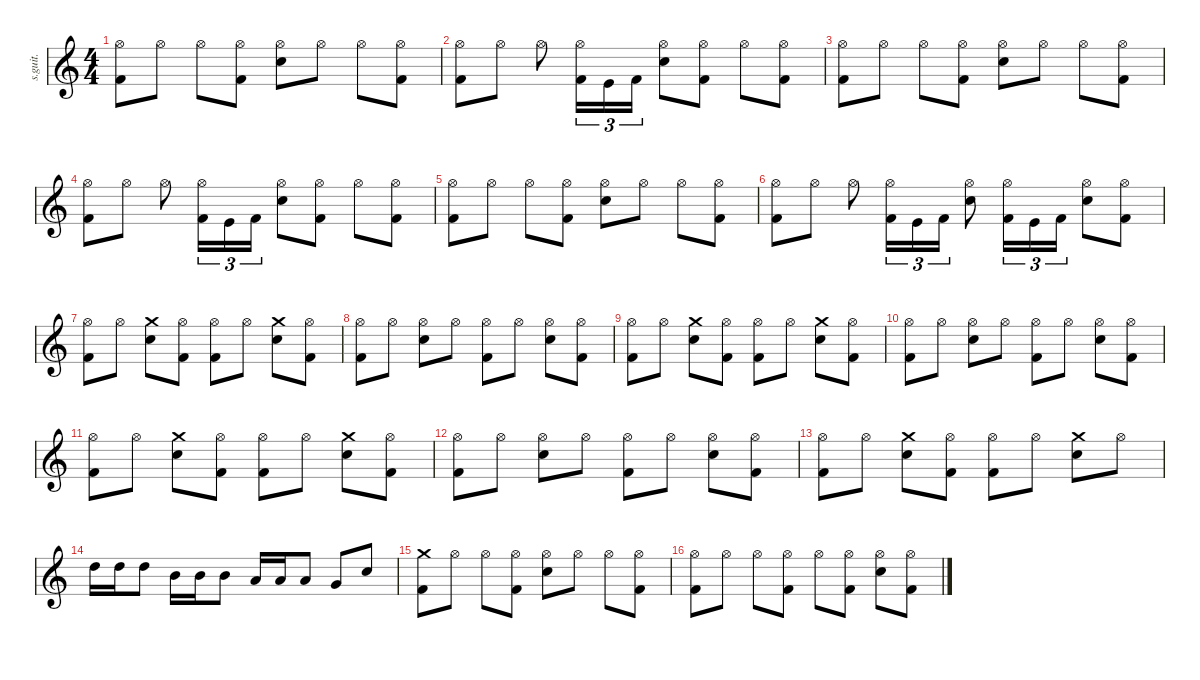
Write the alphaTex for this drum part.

\defaultSystemsLayout 4
\hideDynamics
\bracketExtendMode nobrackets
\track ("Lars Ulrich - Drums" "s.guit.") {instrument percussion}
\staff {score}
\articulation defaults
\ts (4 4)
\tempo (140 hide)
\clef g2
\ks c
("Hi-Hat (open)" "Kick (hit) 2").8{lyrics (0 "") lyrics (1 "") lyrics (2 "") lyrics (3 "") lyrics (4 "") dy f} "Hi-Hat (open)".8{lyrics (0 "") lyrics (1 "") lyrics (2 "") lyrics (3 "") lyrics (4 "")} "Hi-Hat (open)".8{lyrics (0 "") lyrics (1 "") lyrics (2 "") lyrics (3 "") lyrics (4 "")} ("Hi-Hat (open)" "Kick (hit) 2").8{lyrics (0 "") lyrics (1 "") lyrics (2 "") lyrics (3 "") lyrics (4 "")} ("Hi-Hat (open)" "Snare (hit) 2").8{lyrics (0 "") lyrics (1 "") lyrics (2 "") lyrics (3 "") lyrics (4 "")} "Hi-Hat (open)".8{lyrics (0 "") lyrics (1 "") lyrics (2 "") lyrics (3 "") lyrics (4 "")} "Hi-Hat (open)".8{lyrics (0 "") lyrics (1 "") lyrics (2 "") lyrics (3 "") lyrics (4 "")} ("Hi-Hat (open)" "Kick (hit) 2").8{lyrics (0 "") lyrics (1 "") lyrics (2 "") lyrics (3 "") lyrics (4 "")} |
("Hi-Hat (open)" "Kick (hit) 2").8{lyrics (0 "") lyrics (1 "") lyrics (2 "") lyrics (3 "") lyrics (4 "")} "Hi-Hat (open)".8{lyrics (0 "") lyrics (1 "") lyrics (2 "") lyrics (3 "") lyrics (4 "")} "Hi-Hat (open)".8{lyrics (0 "") lyrics (1 "") lyrics (2 "") lyrics (3 "") lyrics (4 "")} ("Hi-Hat (open)" "Kick (hit) 2").16{tu (3 2) lyrics (0 "") lyrics (1 "") lyrics (2 "") lyrics (3 "") lyrics (4 "")} "Kick (hit)".16{tu (3 2) lyrics (0 "") lyrics (1 "") lyrics (2 "") lyrics (3 "") lyrics (4 "")} "Kick (hit) 2".16{tu (3 2) lyrics (0 "") lyrics (1 "") lyrics (2 "") lyrics (3 "") lyrics (4 "")} ("Hi-Hat (open)" "Snare (hit) 2").8{lyrics (0 "") lyrics (1 "") lyrics (2 "") lyrics (3 "") lyrics (4 "")} ("Hi-Hat (open)" "Kick (hit) 2").8{lyrics (0 "") lyrics (1 "") lyrics (2 "") lyrics (3 "") lyrics (4 "")} "Hi-Hat (open)".8{lyrics (0 "") lyrics (1 "") lyrics (2 "") lyrics (3 "") lyrics (4 "")} ("Hi-Hat (open)" "Kick (hit) 2").8{lyrics (0 "") lyrics (1 "") lyrics (2 "") lyrics (3 "") lyrics (4 "")} |
("Hi-Hat (open)" "Kick (hit) 2").8{lyrics (0 "") lyrics (1 "") lyrics (2 "") lyrics (3 "") lyrics (4 "")} "Hi-Hat (open)".8{lyrics (0 "") lyrics (1 "") lyrics (2 "") lyrics (3 "") lyrics (4 "")} "Hi-Hat (open)".8{lyrics (0 "") lyrics (1 "") lyrics (2 "") lyrics (3 "") lyrics (4 "")} ("Hi-Hat (open)" "Kick (hit) 2").8{lyrics (0 "") lyrics (1 "") lyrics (2 "") lyrics (3 "") lyrics (4 "")} ("Hi-Hat (open)" "Snare (hit) 2").8{lyrics (0 "") lyrics (1 "") lyrics (2 "") lyrics (3 "") lyrics (4 "")} "Hi-Hat (open)".8{lyrics (0 "") lyrics (1 "") lyrics (2 "") lyrics (3 "") lyrics (4 "")} "Hi-Hat (open)".8{lyrics (0 "") lyrics (1 "") lyrics (2 "") lyrics (3 "") lyrics (4 "")} ("Hi-Hat (open)" "Kick (hit) 2").8{lyrics (0 "") lyrics (1 "") lyrics (2 "") lyrics (3 "") lyrics (4 "")} |
("Hi-Hat (open)" "Kick (hit) 2").8{lyrics (0 "") lyrics (1 "") lyrics (2 "") lyrics (3 "") lyrics (4 "")} "Hi-Hat (open)".8{lyrics (0 "") lyrics (1 "") lyrics (2 "") lyrics (3 "") lyrics (4 "")} "Hi-Hat (open)".8{lyrics (0 "") lyrics (1 "") lyrics (2 "") lyrics (3 "") lyrics (4 "")} ("Hi-Hat (open)" "Kick (hit) 2").16{tu (3 2) lyrics (0 "") lyrics (1 "") lyrics (2 "") lyrics (3 "") lyrics (4 "")} "Kick (hit)".16{tu (3 2) lyrics (0 "") lyrics (1 "") lyrics (2 "") lyrics (3 "") lyrics (4 "")} "Kick (hit) 2".16{tu (3 2) lyrics (0 "") lyrics (1 "") lyrics (2 "") lyrics (3 "") lyrics (4 "")} ("Hi-Hat (open)" "Snare (hit) 2").8{lyrics (0 "") lyrics (1 "") lyrics (2 "") lyrics (3 "") lyrics (4 "")} ("Hi-Hat (open)" "Kick (hit) 2").8{lyrics (0 "") lyrics (1 "") lyrics (2 "") lyrics (3 "") lyrics (4 "")} "Hi-Hat (open)".8{lyrics (0 "") lyrics (1 "") lyrics (2 "") lyrics (3 "") lyrics (4 "")} ("Hi-Hat (open)" "Kick (hit) 2").8{lyrics (0 "") lyrics (1 "") lyrics (2 "") lyrics (3 "") lyrics (4 "")} |
("Hi-Hat (open)" "Kick (hit) 2").8{lyrics (0 "") lyrics (1 "") lyrics (2 "") lyrics (3 "") lyrics (4 "")} "Hi-Hat (open)".8{lyrics (0 "") lyrics (1 "") lyrics (2 "") lyrics (3 "") lyrics (4 "")} "Hi-Hat (open)".8{lyrics (0 "") lyrics (1 "") lyrics (2 "") lyrics (3 "") lyrics (4 "")} ("Hi-Hat (open)" "Kick (hit) 2").8{lyrics (0 "") lyrics (1 "") lyrics (2 "") lyrics (3 "") lyrics (4 "")} ("Hi-Hat (open)" "Snare (hit) 2").8{lyrics (0 "") lyrics (1 "") lyrics (2 "") lyrics (3 "") lyrics (4 "")} "Hi-Hat (open)".8{lyrics (0 "") lyrics (1 "") lyrics (2 "") lyrics (3 "") lyrics (4 "")} "Hi-Hat (open)".8{lyrics (0 "") lyrics (1 "") lyrics (2 "") lyrics (3 "") lyrics (4 "")} ("Hi-Hat (open)" "Kick (hit) 2").8{lyrics (0 "") lyrics (1 "") lyrics (2 "") lyrics (3 "") lyrics (4 "")} |
("Hi-Hat (open)" "Kick (hit) 2").8{lyrics (0 "") lyrics (1 "") lyrics (2 "") lyrics (3 "") lyrics (4 "")} "Hi-Hat (open)".8{lyrics (0 "") lyrics (1 "") lyrics (2 "") lyrics (3 "") lyrics (4 "")} "Hi-Hat (open)".8{lyrics (0 "") lyrics (1 "") lyrics (2 "") lyrics (3 "") lyrics (4 "")} ("Hi-Hat (open)" "Kick (hit) 2").16{tu (3 2) lyrics (0 "") lyrics (1 "") lyrics (2 "") lyrics (3 "") lyrics (4 "")} "Kick (hit)".16{tu (3 2) lyrics (0 "") lyrics (1 "") lyrics (2 "") lyrics (3 "") lyrics (4 "")} "Kick (hit) 2".16{tu (3 2) lyrics (0 "") lyrics (1 "") lyrics (2 "") lyrics (3 "") lyrics (4 "")} ("Hi-Hat (open)" "Snare (hit) 2").8{lyrics (0 "") lyrics (1 "") lyrics (2 "") lyrics (3 "") lyrics (4 "")} ("Hi-Hat (open)" "Kick (hit) 2").16{tu (3 2) lyrics (0 "") lyrics (1 "") lyrics (2 "") lyrics (3 "") lyrics (4 "")} "Kick (hit)".16{tu (3 2) lyrics (0 "") lyrics (1 "") lyrics (2 "") lyrics (3 "") lyrics (4 "")} "Kick (hit) 2".16{tu (3 2) lyrics (0 "") lyrics (1 "") lyrics (2 "") lyrics (3 "") lyrics (4 "")} ("Hi-Hat (open)" "Snare (hit) 2").8{lyrics (0 "") lyrics (1 "") lyrics (2 "") lyrics (3 "") lyrics (4 "")} ("Hi-Hat (open)" "Kick (hit) 2").8{lyrics (0 "") lyrics (1 "") lyrics (2 "") lyrics (3 "") lyrics (4 "")} |
("Hi-Hat (open)" "Kick (hit) 2").8{lyrics (0 "") lyrics (1 "") lyrics (2 "") lyrics (3 "") lyrics (4 "")} "Hi-Hat (open)".8{lyrics (0 "") lyrics (1 "") lyrics (2 "") lyrics (3 "") lyrics (4 "")} ("Crash medium (hit)" "Snare (hit) 2").8{lyrics (0 "") lyrics (1 "") lyrics (2 "") lyrics (3 "") lyrics (4 "")} ("Hi-Hat (open)" "Kick (hit) 2").8{lyrics (0 "") lyrics (1 "") lyrics (2 "") lyrics (3 "") lyrics (4 "")} ("Hi-Hat (open)" "Kick (hit) 2").8{lyrics (0 "") lyrics (1 "") lyrics (2 "") lyrics (3 "") lyrics (4 "")} "Hi-Hat (open)".8{lyrics (0 "") lyrics (1 "") lyrics (2 "") lyrics (3 "") lyrics (4 "")} ("Crash medium (hit)" "Snare (hit) 2").8{lyrics (0 "") lyrics (1 "") lyrics (2 "") lyrics (3 "") lyrics (4 "")} ("Hi-Hat (open)" "Kick (hit) 2").8{lyrics (0 "") lyrics (1 "") lyrics (2 "") lyrics (3 "") lyrics (4 "")} |
("Hi-Hat (open)" "Kick (hit) 2").8{lyrics (0 "") lyrics (1 "") lyrics (2 "") lyrics (3 "") lyrics (4 "")} "Hi-Hat (open)".8{lyrics (0 "") lyrics (1 "") lyrics (2 "") lyrics (3 "") lyrics (4 "")} ("Hi-Hat (open)" "Snare (hit) 2").8{lyrics (0 "") lyrics (1 "") lyrics (2 "") lyrics (3 "") lyrics (4 "")} "Hi-Hat (open)".8{lyrics (0 "") lyrics (1 "") lyrics (2 "") lyrics (3 "") lyrics (4 "")} ("Hi-Hat (open)" "Kick (hit) 2").8{lyrics (0 "") lyrics (1 "") lyrics (2 "") lyrics (3 "") lyrics (4 "")} "Hi-Hat (open)".8{lyrics (0 "") lyrics (1 "") lyrics (2 "") lyrics (3 "") lyrics (4 "")} ("Hi-Hat (open)" "Snare (hit) 2").8{lyrics (0 "") lyrics (1 "") lyrics (2 "") lyrics (3 "") lyrics (4 "")} ("Hi-Hat (open)" "Kick (hit) 2").8{lyrics (0 "") lyrics (1 "") lyrics (2 "") lyrics (3 "") lyrics (4 "")} |
("Hi-Hat (open)" "Kick (hit) 2").8{lyrics (0 "") lyrics (1 "") lyrics (2 "") lyrics (3 "") lyrics (4 "")} "Hi-Hat (open)".8{lyrics (0 "") lyrics (1 "") lyrics (2 "") lyrics (3 "") lyrics (4 "")} ("Crash medium (hit)" "Snare (hit) 2").8{lyrics (0 "") lyrics (1 "") lyrics (2 "") lyrics (3 "") lyrics (4 "")} ("Hi-Hat (open)" "Kick (hit) 2").8{lyrics (0 "") lyrics (1 "") lyrics (2 "") lyrics (3 "") lyrics (4 "")} ("Hi-Hat (open)" "Kick (hit) 2").8{lyrics (0 "") lyrics (1 "") lyrics (2 "") lyrics (3 "") lyrics (4 "")} "Hi-Hat (open)".8{lyrics (0 "") lyrics (1 "") lyrics (2 "") lyrics (3 "") lyrics (4 "")} ("Crash medium (hit)" "Snare (hit) 2").8{lyrics (0 "") lyrics (1 "") lyrics (2 "") lyrics (3 "") lyrics (4 "")} ("Hi-Hat (open)" "Kick (hit) 2").8{lyrics (0 "") lyrics (1 "") lyrics (2 "") lyrics (3 "") lyrics (4 "")} |
("Hi-Hat (open)" "Kick (hit) 2").8{lyrics (0 "") lyrics (1 "") lyrics (2 "") lyrics (3 "") lyrics (4 "")} "Hi-Hat (open)".8{lyrics (0 "") lyrics (1 "") lyrics (2 "") lyrics (3 "") lyrics (4 "")} ("Hi-Hat (open)" "Snare (hit) 2").8{lyrics (0 "") lyrics (1 "") lyrics (2 "") lyrics (3 "") lyrics (4 "")} "Hi-Hat (open)".8{lyrics (0 "") lyrics (1 "") lyrics (2 "") lyrics (3 "") lyrics (4 "")} ("Hi-Hat (open)" "Kick (hit) 2").8{lyrics (0 "") lyrics (1 "") lyrics (2 "") lyrics (3 "") lyrics (4 "")} "Hi-Hat (open)".8{lyrics (0 "") lyrics (1 "") lyrics (2 "") lyrics (3 "") lyrics (4 "")} ("Hi-Hat (open)" "Snare (hit) 2").8{lyrics (0 "") lyrics (1 "") lyrics (2 "") lyrics (3 "") lyrics (4 "")} ("Hi-Hat (open)" "Kick (hit) 2").8{lyrics (0 "") lyrics (1 "") lyrics (2 "") lyrics (3 "") lyrics (4 "")} |
("Hi-Hat (open)" "Kick (hit) 2").8{lyrics (0 "") lyrics (1 "") lyrics (2 "") lyrics (3 "") lyrics (4 "")} "Hi-Hat (open)".8{lyrics (0 "") lyrics (1 "") lyrics (2 "") lyrics (3 "") lyrics (4 "")} ("Crash medium (hit)" "Snare (hit) 2").8{lyrics (0 "") lyrics (1 "") lyrics (2 "") lyrics (3 "") lyrics (4 "")} ("Hi-Hat (open)" "Kick (hit) 2").8{lyrics (0 "") lyrics (1 "") lyrics (2 "") lyrics (3 "") lyrics (4 "")} ("Hi-Hat (open)" "Kick (hit) 2").8{lyrics (0 "") lyrics (1 "") lyrics (2 "") lyrics (3 "") lyrics (4 "")} "Hi-Hat (open)".8{lyrics (0 "") lyrics (1 "") lyrics (2 "") lyrics (3 "") lyrics (4 "")} ("Crash medium (hit)" "Snare (hit) 2").8{lyrics (0 "") lyrics (1 "") lyrics (2 "") lyrics (3 "") lyrics (4 "")} ("Hi-Hat (open)" "Kick (hit) 2").8{lyrics (0 "") lyrics (1 "") lyrics (2 "") lyrics (3 "") lyrics (4 "")} |
("Hi-Hat (open)" "Kick (hit) 2").8{lyrics (0 "") lyrics (1 "") lyrics (2 "") lyrics (3 "") lyrics (4 "")} "Hi-Hat (open)".8{lyrics (0 "") lyrics (1 "") lyrics (2 "") lyrics (3 "") lyrics (4 "")} ("Hi-Hat (open)" "Snare (hit) 2").8{lyrics (0 "") lyrics (1 "") lyrics (2 "") lyrics (3 "") lyrics (4 "")} "Hi-Hat (open)".8{lyrics (0 "") lyrics (1 "") lyrics (2 "") lyrics (3 "") lyrics (4 "")} ("Hi-Hat (open)" "Kick (hit) 2").8{lyrics (0 "") lyrics (1 "") lyrics (2 "") lyrics (3 "") lyrics (4 "")} "Hi-Hat (open)".8{lyrics (0 "") lyrics (1 "") lyrics (2 "") lyrics (3 "") lyrics (4 "")} ("Hi-Hat (open)" "Snare (hit) 2").8{lyrics (0 "") lyrics (1 "") lyrics (2 "") lyrics (3 "") lyrics (4 "")} ("Hi-Hat (open)" "Kick (hit) 2").8{lyrics (0 "") lyrics (1 "") lyrics (2 "") lyrics (3 "") lyrics (4 "")} |
("Hi-Hat (open)" "Kick (hit) 2").8{lyrics (0 "") lyrics (1 "") lyrics (2 "") lyrics (3 "") lyrics (4 "")} "Hi-Hat (open)".8{lyrics (0 "") lyrics (1 "") lyrics (2 "") lyrics (3 "") lyrics (4 "")} ("Crash medium (hit)" "Snare (hit) 2").8{lyrics (0 "") lyrics (1 "") lyrics (2 "") lyrics (3 "") lyrics (4 "")} ("Hi-Hat (open)" "Kick (hit) 2").8{lyrics (0 "") lyrics (1 "") lyrics (2 "") lyrics (3 "") lyrics (4 "")} ("Hi-Hat (open)" "Kick (hit) 2").8{lyrics (0 "") lyrics (1 "") lyrics (2 "") lyrics (3 "") lyrics (4 "")} "Hi-Hat (open)".8{lyrics (0 "") lyrics (1 "") lyrics (2 "") lyrics (3 "") lyrics (4 "")} ("Crash medium (hit)" "Snare (hit) 2").8{lyrics (0 "") lyrics (1 "") lyrics (2 "") lyrics (3 "") lyrics (4 "")} "Hi-Hat (open)".8{lyrics (0 "") lyrics (1 "") lyrics (2 "") lyrics (3 "") lyrics (4 "")} |
"High Tom (hit)".16{lyrics (0 "") lyrics (1 "") lyrics (2 "") lyrics (3 "") lyrics (4 "") dy fff} "High Tom (hit)".16{lyrics (0 "") lyrics (1 "") lyrics (2 "") lyrics (3 "") lyrics (4 "")} "High Tom (hit)".8{lyrics (0 "") lyrics (1 "") lyrics (2 "") lyrics (3 "") lyrics (4 "")} "Mid Tom (hit)".16{lyrics (0 "") lyrics (1 "") lyrics (2 "") lyrics (3 "") lyrics (4 "")} "Mid Tom (hit)".16{lyrics (0 "") lyrics (1 "") lyrics (2 "") lyrics (3 "") lyrics (4 "")} "Mid Tom (hit)".8{lyrics (0 "") lyrics (1 "") lyrics (2 "") lyrics (3 "") lyrics (4 "")} "Low Tom (hit)".16{lyrics (0 "") lyrics (1 "") lyrics (2 "") lyrics (3 "") lyrics (4 "")} "Low Tom (hit)".16{lyrics (0 "") lyrics (1 "") lyrics (2 "") lyrics (3 "") lyrics (4 "")} "Low Tom (hit)".8{lyrics (0 "") lyrics (1 "") lyrics (2 "") lyrics (3 "") lyrics (4 "")} "Very Low Tom (hit)".8{lyrics (0 "") lyrics (1 "") lyrics (2 "") lyrics (3 "") lyrics (4 "") dy ff} "Snare (hit) 2".8{lyrics (0 "") lyrics (1 "") lyrics (2 "") lyrics (3 "") lyrics (4 "") dy fff} |
("Crash medium (hit)" "Kick (hit) 2").8{lyrics (0 "") lyrics (1 "") lyrics (2 "") lyrics (3 "") lyrics (4 "") dy f} "Hi-Hat (open)".8{lyrics (0 "") lyrics (1 "") lyrics (2 "") lyrics (3 "") lyrics (4 "")} "Hi-Hat (open)".8{lyrics (0 "") lyrics (1 "") lyrics (2 "") lyrics (3 "") lyrics (4 "")} ("Hi-Hat (open)" "Kick (hit) 2").8{lyrics (0 "") lyrics (1 "") lyrics (2 "") lyrics (3 "") lyrics (4 "")} ("Hi-Hat (open)" "Snare (hit) 2").8{lyrics (0 "") lyrics (1 "") lyrics (2 "") lyrics (3 "") lyrics (4 "")} "Hi-Hat (open)".8{lyrics (0 "") lyrics (1 "") lyrics (2 "") lyrics (3 "") lyrics (4 "")} "Hi-Hat (open)".8{lyrics (0 "") lyrics (1 "") lyrics (2 "") lyrics (3 "") lyrics (4 "")} ("Hi-Hat (open)" "Kick (hit) 2").8{lyrics (0 "") lyrics (1 "") lyrics (2 "") lyrics (3 "") lyrics (4 "")} |
("Hi-Hat (open)" "Kick (hit) 2").8{lyrics (0 "") lyrics (1 "") lyrics (2 "") lyrics (3 "") lyrics (4 "")} "Hi-Hat (open)".8{lyrics (0 "") lyrics (1 "") lyrics (2 "") lyrics (3 "") lyrics (4 "")} "Hi-Hat (open)".8{lyrics (0 "") lyrics (1 "") lyrics (2 "") lyrics (3 "") lyrics (4 "")} ("Hi-Hat (open)" "Kick (hit) 2").8{lyrics (0 "") lyrics (1 "") lyrics (2 "") lyrics (3 "") lyrics (4 "")} "Hi-Hat (open)".8{lyrics (0 "") lyrics (1 "") lyrics (2 "") lyrics (3 "") lyrics (4 "")} ("Hi-Hat (open)" "Kick (hit) 2").8{lyrics (0 "") lyrics (1 "") lyrics (2 "") lyrics (3 "") lyrics (4 "")} ("Hi-Hat (open)" "Snare (hit) 2").8{lyrics (0 "") lyrics (1 "") lyrics (2 "") lyrics (3 "") lyrics (4 "")} ("Hi-Hat (open)" "Kick (hit) 2").8{lyrics (0 "") lyrics (1 "") lyrics (2 "") lyrics (3 "") lyrics (4 "")}
